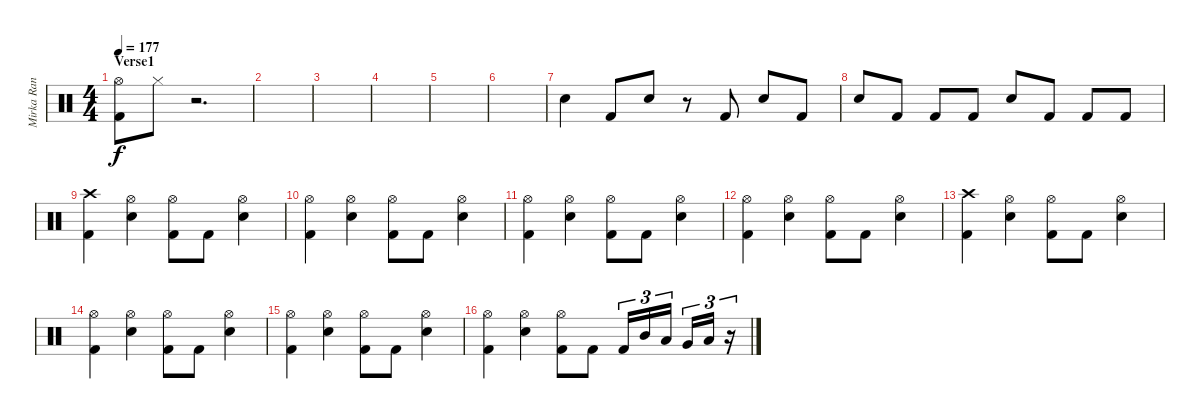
\track (" Mirka Rantanen" " Mirka Ran") {instrument percussion}
\staff {score}
\articulation defaults
\ts (4 4)
\section ("" "Verse1")
\tempo 177
\clef neutral
\ks c
("Hi-Hat (open)" "Kick (hit) 2").8{dy f} "Hi-Hat (closed)".8 r.2{d} |
|
|
|
|
|
"Electric Snare (hit)".4 "Kick (hit) 2".8 "Electric Snare (hit)".8 r.8 "Kick (hit) 2".8 "Electric Snare (hit)".8 "Kick (hit) 2".8 |
"Electric Snare (hit)".8 "Kick (hit) 2".8 "Kick (hit) 2".8 "Kick (hit) 2".8 "Electric Snare (hit)".8 "Kick (hit) 2".8 "Kick (hit) 2".8 "Kick (hit) 2".8 |
("Crash high (hit)" "Kick (hit) 2").4 ("Hi-Hat (open)" "Electric Snare (hit)").4 ("Hi-Hat (open)" "Kick (hit) 2").8 "Kick (hit) 2".8 ("Hi-Hat (open)" "Electric Snare (hit)").4 |
("Hi-Hat (open)" "Kick (hit) 2").4 ("Hi-Hat (open)" "Electric Snare (hit)").4 ("Hi-Hat (open)" "Kick (hit) 2").8 "Kick (hit) 2".8 ("Hi-Hat (open)" "Electric Snare (hit)").4 |
("Hi-Hat (open)" "Kick (hit) 2").4 ("Hi-Hat (open)" "Electric Snare (hit)").4 ("Hi-Hat (open)" "Kick (hit) 2").8 "Kick (hit) 2".8 ("Hi-Hat (open)" "Electric Snare (hit)").4 |
("Hi-Hat (open)" "Kick (hit) 2").4 ("Hi-Hat (open)" "Electric Snare (hit)").4 ("Hi-Hat (open)" "Kick (hit) 2").8 "Kick (hit) 2".8 ("Hi-Hat (open)" "Electric Snare (hit)").4 |
("Crash high (hit)" "Kick (hit) 2").4 ("Hi-Hat (open)" "Electric Snare (hit)").4 ("Hi-Hat (open)" "Kick (hit) 2").8 "Kick (hit) 2".8 ("Hi-Hat (open)" "Electric Snare (hit)").4 |
("Hi-Hat (open)" "Kick (hit) 2").4 ("Hi-Hat (open)" "Electric Snare (hit)").4 ("Hi-Hat (open)" "Kick (hit) 2").8 "Kick (hit) 2".8 ("Hi-Hat (open)" "Electric Snare (hit)").4 |
("Hi-Hat (open)" "Kick (hit) 2").4 ("Hi-Hat (open)" "Electric Snare (hit)").4 ("Hi-Hat (open)" "Kick (hit) 2").8 "Kick (hit) 2".8 ("Hi-Hat (open)" "Electric Snare (hit)").4 |
("Hi-Hat (open)" "Kick (hit) 2").4 ("Hi-Hat (open)" "Electric Snare (hit)").4 ("Hi-Hat (open)" "Kick (hit) 2").8 "Kick (hit) 2".8 "Kick (hit) 2".16{tu (3 2)} "Mid Tom (hit)".16{tu (3 2)} "Low Tom (hit)".16{tu (3 2) beam splitsecondary} "Very Low Tom (hit)".16{tu (3 2)} "Low Floor Tom (hit)".16{tu (3 2)} r.16{tu (3 2)}
